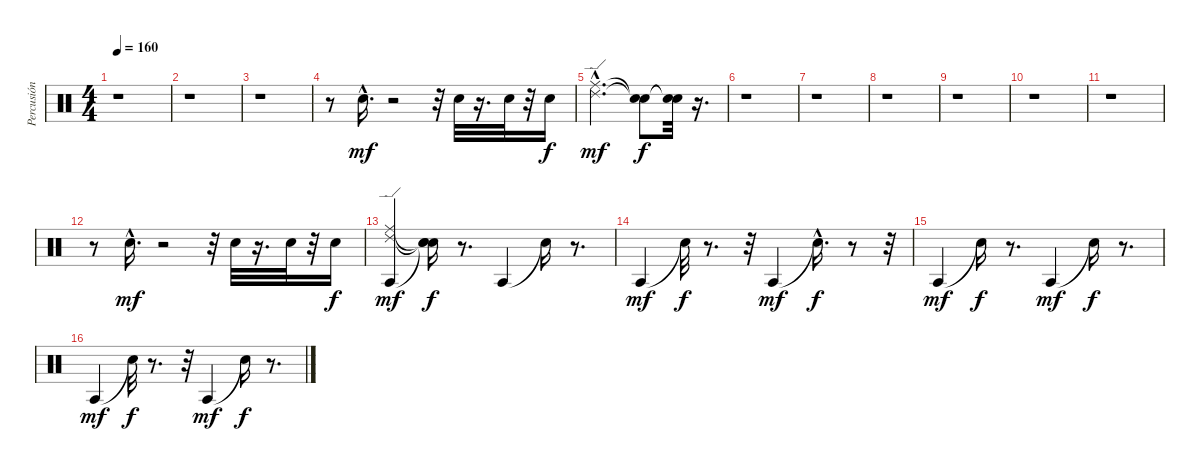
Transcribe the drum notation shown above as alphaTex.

\track ("Percusión" "Percusión") {instrument percussion}
\staff {score}
\articulation defaults
\ts (4 4)
\tempo 160
\clef neutral
\ks c
r.1{dy f} |
r.1 |
r.1 |
r.8 "Electric Snare (hit)"{hac}.16{d dy mf} r.2 r.32 "Electric Snare (hit)".32 r.16{d} "Electric Snare (hit)".32 r.32 "Electric Snare (hit)".16{dy f} |
("Ride (edge) 2"{hac} "Ride (middle)"{hac}).2{d dy mf} ("Snare (hit)"{t} "Snare (hit)"{t}).8{dy f} ("Snare (hit)"{t} "Snare (hit)"{t}).32 r.16{d} |
r.1 |
r.1 |
r.1 |
r.1 |
r.1 |
r.1 |
r.8 "Electric Snare (hit)"{hac}.16{d dy mf} r.2 r.32 "Electric Snare (hit)".32 r.16{d} "Electric Snare (hit)".32 r.32 "Electric Snare (hit)".16{dy f} |
("Ride (middle)" "Agogo tow (hit)" "Ride (edge) 2").4{dy mf} ("Snare (hit)"{t} "Snare (hit)"{t} "Snare (hit)"{t}).16{dy f} r.8{d} "Agogo tow (hit)".4 "Snare (hit)"{t}.16 r.8{d} |
"Agogo tow (hit)".4{dy mf} "Snare (hit)"{t}.32{dy f} r.8{d} r.32 "Agogo tow (hit)".4{dy mf} "Snare (hit)"{hac t}.16{d dy f} r.8 r.32 |
"Agogo tow (hit)".4{dy mf} "Snare (hit)"{t}.16{dy f} r.8{d} "Agogo tow (hit)".4{dy mf} "Snare (hit)"{t}.16{dy f} r.8{d} |
"Agogo tow (hit)".4{dy mf} "Snare (hit)"{t}.32{dy f} r.8{d} r.32 "Agogo tow (hit)".4{dy mf} "Snare (hit)"{t}.16{dy f} r.8{d}
